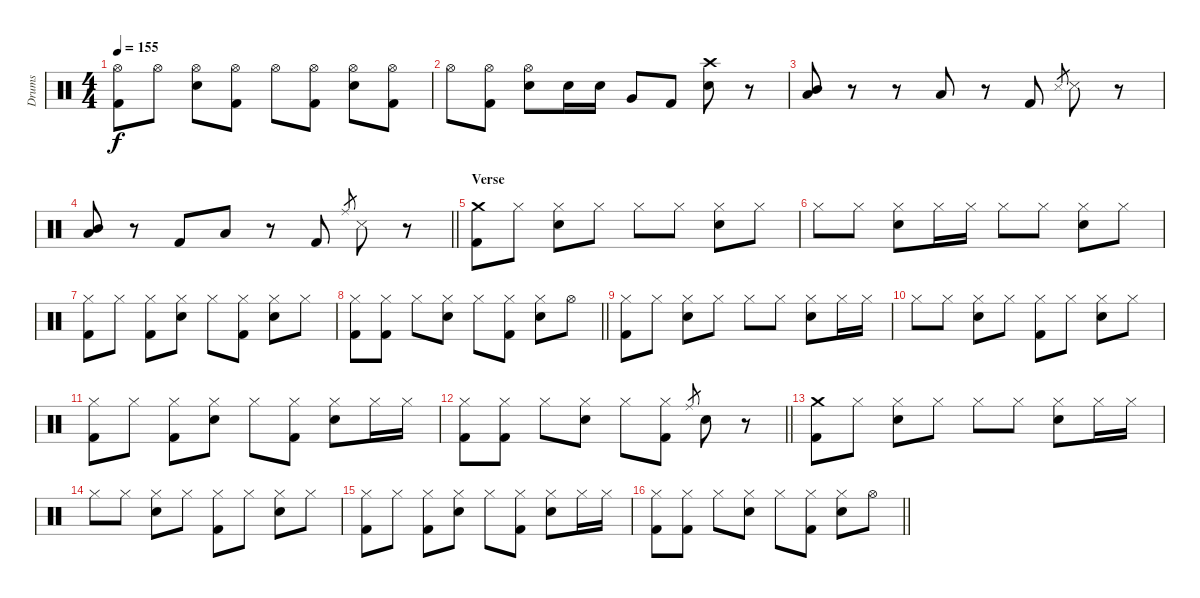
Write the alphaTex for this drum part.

\track ("Drums" "Drums") {instrument percussion}
\staff {score}
\articulation defaults
\ts (4 4)
\tempo 155
\clef neutral
\ks c
("Hi-Hat (open)" "Kick (hit) 2").8{dy f} "Hi-Hat (open)".8 ("Hi-Hat (open)" "Snare (hit) 2").8 ("Hi-Hat (open)" "Kick (hit) 2").8 "Hi-Hat (open)".8 ("Hi-Hat (open)" "Kick (hit) 2").8 ("Hi-Hat (open)" "Snare (hit) 2").8 ("Hi-Hat (open)" "Kick (hit) 2").8 |
"Hi-Hat (open)".8 ("Hi-Hat (open)" "Kick (hit) 2").8 ("Hi-Hat (open)" "Snare (hit) 2").8 "Snare (hit) 2".16 "Snare (hit) 2".16 "Very Low Tom (hit)".8 "Kick (hit) 2".8 ("Crash high (hit)" "Snare (hit) 2").8 r.8 |
("Mid Tom (hit)" "Low Tom (hit)").8 r.8 r.8 "Low Tom (hit)".8 r.8 "Kick (hit) 2".8 "Snare (side stick) 3".8{gr} "Snare (side stick) 3".8 r.8 |
\barLineRight lightlight
("Mid Tom (hit)" "Low Tom (hit)").8 r.8 "Kick (hit) 2".8 "Low Tom (hit)".8 r.8 "Kick (hit) 2".8 "Ride (middle)".8{gr} "Snare (side stick) 3".8 r.8 |
\section ("" "Verse")
("Crash medium (hit)" "Kick (hit) 2").8 "Hi-Hat (closed)".8 ("Hi-Hat (closed)" "Snare (hit) 2").8 "Hi-Hat (closed)".8 "Hi-Hat (closed)".8 "Hi-Hat (closed)".8 ("Hi-Hat (closed)" "Snare (hit) 2").8 "Hi-Hat (closed)".8 |
"Hi-Hat (closed)".8 "Hi-Hat (closed)".8 ("Hi-Hat (closed)" "Snare (hit) 2").8 "Hi-Hat (closed)".16 "Hi-Hat (closed)".16 "Hi-Hat (closed)".8 "Hi-Hat (closed)".8 ("Hi-Hat (closed)" "Snare (hit) 2").8 "Hi-Hat (closed)".8 |
("Hi-Hat (closed)" "Kick (hit) 2").8 "Hi-Hat (closed)".8 ("Hi-Hat (closed)" "Kick (hit) 2").8 ("Hi-Hat (closed)" "Snare (hit) 2").8 "Hi-Hat (closed)".8 ("Hi-Hat (closed)" "Kick (hit) 2").8 ("Hi-Hat (closed)" "Snare (hit) 2").8 "Hi-Hat (closed)".8 |
\barLineRight lightlight
("Hi-Hat (closed)" "Kick (hit) 2").8 ("Hi-Hat (closed)" "Kick (hit) 2").8 "Hi-Hat (closed)".8 ("Hi-Hat (closed)" "Snare (hit) 2").8 "Hi-Hat (closed)".8 ("Hi-Hat (closed)" "Kick (hit) 2").8 ("Hi-Hat (closed)" "Snare (hit) 2").8 "Hi-Hat (open)".8 |
("Hi-Hat (closed)" "Kick (hit) 2").8 "Hi-Hat (closed)".8 ("Hi-Hat (closed)" "Snare (hit) 2").8 "Hi-Hat (closed)".8 "Hi-Hat (closed)".8 "Hi-Hat (closed)".8 ("Hi-Hat (closed)" "Snare (hit) 2").8 "Hi-Hat (closed)".16 "Hi-Hat (closed)".16 |
"Hi-Hat (closed)".8 "Hi-Hat (closed)".8 ("Hi-Hat (closed)" "Snare (hit) 2").8 "Hi-Hat (closed)".8 ("Hi-Hat (closed)" "Kick (hit) 2").8 "Hi-Hat (closed)".8 ("Hi-Hat (closed)" "Snare (hit) 2").8 "Hi-Hat (closed)".8 |
("Hi-Hat (closed)" "Kick (hit) 2").8 "Hi-Hat (closed)".8 ("Hi-Hat (closed)" "Kick (hit) 2").8 ("Hi-Hat (closed)" "Snare (hit) 2").8 "Hi-Hat (closed)".8 ("Hi-Hat (closed)" "Kick (hit) 2").8 ("Hi-Hat (closed)" "Snare (hit) 2").8 "Hi-Hat (closed)".16 "Hi-Hat (closed)".16 |
\barLineRight lightlight
("Hi-Hat (closed)" "Kick (hit) 2").8 ("Hi-Hat (closed)" "Kick (hit) 2").8 "Hi-Hat (closed)".8 ("Hi-Hat (closed)" "Snare (hit) 2").8 "Hi-Hat (closed)".8 ("Hi-Hat (closed)" "Kick (hit) 2").8 "Ride (middle)".8{gr} "Snare (hit) 2".8 r.8 |
("Crash medium (hit)" "Kick (hit) 2").8 "Hi-Hat (closed)".8 ("Hi-Hat (closed)" "Snare (hit) 2").8 "Hi-Hat (closed)".8 "Hi-Hat (closed)".8 "Hi-Hat (closed)".8 ("Hi-Hat (closed)" "Snare (hit) 2").8 "Hi-Hat (closed)".16 "Hi-Hat (closed)".16 |
"Hi-Hat (closed)".8 "Hi-Hat (closed)".8 ("Hi-Hat (closed)" "Snare (hit) 2").8 "Hi-Hat (closed)".8 ("Hi-Hat (closed)" "Kick (hit) 2").8 "Hi-Hat (closed)".8 ("Hi-Hat (closed)" "Snare (hit) 2").8 "Hi-Hat (closed)".8 |
("Hi-Hat (closed)" "Kick (hit) 2").8 "Hi-Hat (closed)".8 ("Hi-Hat (closed)" "Kick (hit) 2").8 ("Hi-Hat (closed)" "Snare (hit) 2").8 "Hi-Hat (closed)".8 ("Hi-Hat (closed)" "Kick (hit) 2").8 ("Hi-Hat (closed)" "Snare (hit) 2").8 "Hi-Hat (closed)".16 "Hi-Hat (closed)".16 |
\barLineRight lightlight
("Hi-Hat (closed)" "Kick (hit) 2").8 ("Hi-Hat (closed)" "Kick (hit) 2").8 "Hi-Hat (closed)".8 ("Hi-Hat (closed)" "Snare (hit) 2").8 "Hi-Hat (closed)".8 ("Hi-Hat (closed)" "Kick (hit) 2").8 ("Hi-Hat (closed)" "Snare (hit) 2").8 "Hi-Hat (open)".8
